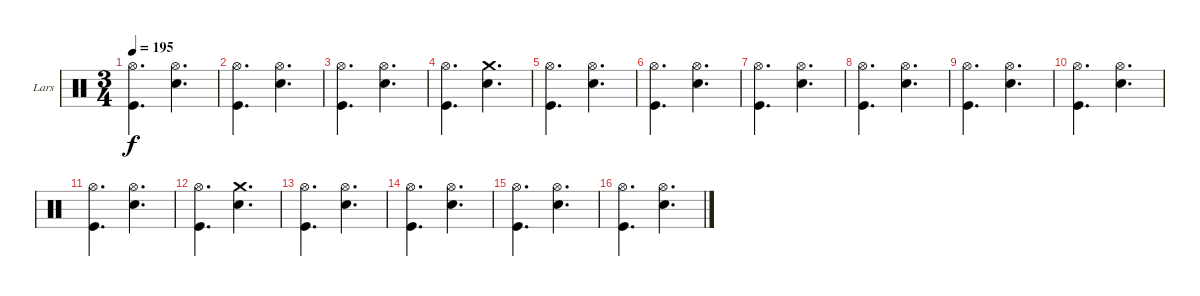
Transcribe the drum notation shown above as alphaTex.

\bracketExtendMode groupsimilarinstruments
\firstSystemTrackNameOrientation horizontal
\otherSystemsTrackNameOrientation horizontal
\track ("Drumkit" "Lars") {instrument percussion}
\staff {score}
\articulation defaults
\ts (3 4)
\tempo 195
\clef neutral
\ks c
("Hi-Hat (open)" "Kick (hit)").4{d dy f} ("Hi-Hat (open)" "Snare (hit) 2").4{d} |
("Hi-Hat (open)" "Kick (hit)").4{d} ("Hi-Hat (open)" "Snare (hit) 2").4{d} |
("Hi-Hat (open)" "Kick (hit)").4{d} ("Hi-Hat (open)" "Snare (hit) 2").4{d} |
("Hi-Hat (open)" "Kick (hit)").4{d} ("Crash medium (hit)" "Snare (hit) 2").4{d} |
("Hi-Hat (open)" "Kick (hit)").4{d} ("Hi-Hat (open)" "Snare (hit) 2").4{d} |
("Hi-Hat (open)" "Kick (hit)").4{d} ("Hi-Hat (open)" "Snare (hit) 2").4{d} |
("Hi-Hat (open)" "Kick (hit)").4{d} ("Hi-Hat (open)" "Snare (hit) 2").4{d} |
("Hi-Hat (open)" "Kick (hit)").4{d} ("Hi-Hat (open)" "Snare (hit) 2").4{d} |
("Hi-Hat (open)" "Kick (hit)").4{d} ("Hi-Hat (open)" "Snare (hit) 2").4{d} |
("Hi-Hat (open)" "Kick (hit)").4{d} ("Hi-Hat (open)" "Snare (hit) 2").4{d} |
("Hi-Hat (open)" "Kick (hit)").4{d} ("Hi-Hat (open)" "Snare (hit) 2").4{d} |
("Hi-Hat (open)" "Kick (hit)").4{d} ("Crash medium (hit)" "Snare (hit) 2").4{d} |
("Hi-Hat (open)" "Kick (hit)").4{d} ("Hi-Hat (open)" "Snare (hit) 2").4{d} |
("Hi-Hat (open)" "Kick (hit)").4{d} ("Hi-Hat (open)" "Snare (hit) 2").4{d} |
("Hi-Hat (open)" "Kick (hit)").4{d} ("Hi-Hat (open)" "Snare (hit) 2").4{d} |
("Hi-Hat (open)" "Kick (hit)").4{d} ("Hi-Hat (open)" "Snare (hit) 2").4{d}
